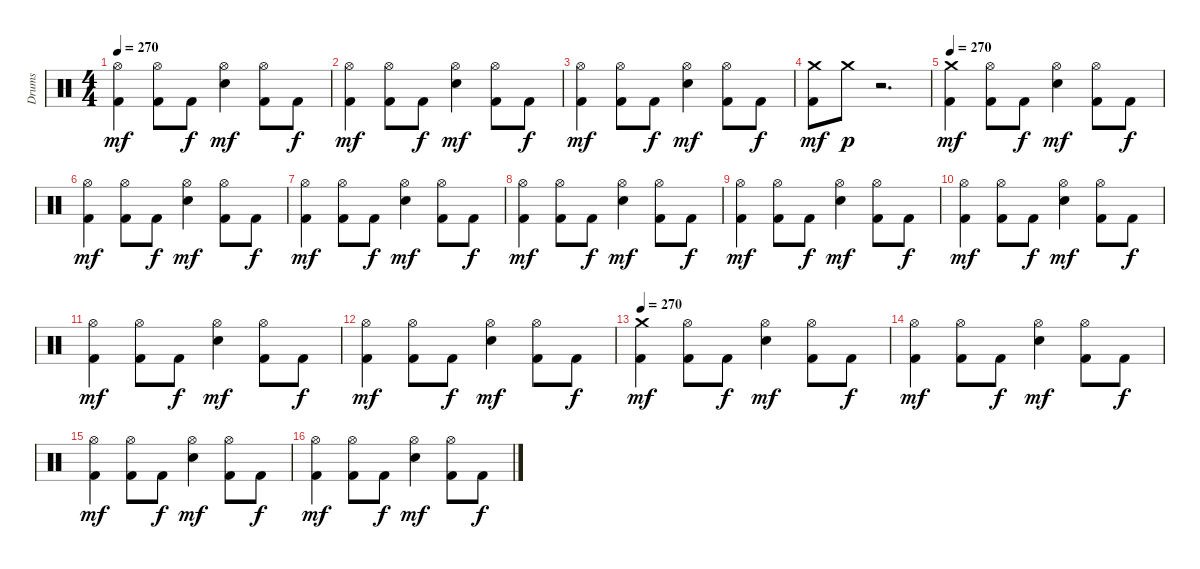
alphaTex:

\track ("Drums" "Drums") {instrument percussion}
\staff {score}
\articulation defaults
\ts (4 4)
\tempo 270
\clef neutral
\ks c
("Hi-Hat (open)" "Kick (hit) 2").4{dy mf} ("Hi-Hat (open)" "Kick (hit) 2").8 "Kick (hit) 2".8{dy f} ("Hi-Hat (open)" "Snare (hit) 2").4{dy mf} ("Hi-Hat (open)" "Kick (hit) 2").8 "Kick (hit) 2".8{dy f} |
("Hi-Hat (open)" "Kick (hit) 2").4{dy mf} ("Hi-Hat (open)" "Kick (hit) 2").8 "Kick (hit) 2".8{dy f} ("Hi-Hat (open)" "Snare (hit) 2").4{dy mf} ("Hi-Hat (open)" "Kick (hit) 2").8 "Kick (hit) 2".8{dy f} |
("Hi-Hat (open)" "Kick (hit) 2").4{dy mf} ("Hi-Hat (open)" "Kick (hit) 2").8 "Kick (hit) 2".8{dy f} ("Hi-Hat (open)" "Snare (hit) 2").4{dy mf} ("Hi-Hat (open)" "Kick (hit) 2").8 "Kick (hit) 2".8{dy f} |
("Crash medium (hit)" "Kick (hit) 2").8{dy mf} "Crash medium (hit)".8{dy p} r.2{d} |
\tempo 270
("Crash medium (hit)" "Kick (hit) 2").4{dy mf} ("Hi-Hat (open)" "Kick (hit) 2").8 "Kick (hit) 2".8{dy f} ("Hi-Hat (open)" "Snare (hit) 2").4{dy mf} ("Hi-Hat (open)" "Kick (hit) 2").8 "Kick (hit) 2".8{dy f} |
("Hi-Hat (open)" "Kick (hit) 2").4{dy mf} ("Hi-Hat (open)" "Kick (hit) 2").8 "Kick (hit) 2".8{dy f} ("Hi-Hat (open)" "Snare (hit) 2").4{dy mf} ("Hi-Hat (open)" "Kick (hit) 2").8 "Kick (hit) 2".8{dy f} |
("Hi-Hat (open)" "Kick (hit) 2").4{dy mf} ("Hi-Hat (open)" "Kick (hit) 2").8 "Kick (hit) 2".8{dy f} ("Hi-Hat (open)" "Snare (hit) 2").4{dy mf} ("Hi-Hat (open)" "Kick (hit) 2").8 "Kick (hit) 2".8{dy f} |
("Hi-Hat (open)" "Kick (hit) 2").4{dy mf} ("Hi-Hat (open)" "Kick (hit) 2").8 "Kick (hit) 2".8{dy f} ("Hi-Hat (open)" "Snare (hit) 2").4{dy mf} ("Hi-Hat (open)" "Kick (hit) 2").8 "Kick (hit) 2".8{dy f} |
("Hi-Hat (open)" "Kick (hit) 2").4{dy mf} ("Hi-Hat (open)" "Kick (hit) 2").8 "Kick (hit) 2".8{dy f} ("Hi-Hat (open)" "Snare (hit) 2").4{dy mf} ("Hi-Hat (open)" "Kick (hit) 2").8 "Kick (hit) 2".8{dy f} |
("Hi-Hat (open)" "Kick (hit) 2").4{dy mf} ("Hi-Hat (open)" "Kick (hit) 2").8 "Kick (hit) 2".8{dy f} ("Hi-Hat (open)" "Snare (hit) 2").4{dy mf} ("Hi-Hat (open)" "Kick (hit) 2").8 "Kick (hit) 2".8{dy f} |
("Hi-Hat (open)" "Kick (hit) 2").4{dy mf} ("Hi-Hat (open)" "Kick (hit) 2").8 "Kick (hit) 2".8{dy f} ("Hi-Hat (open)" "Snare (hit) 2").4{dy mf} ("Hi-Hat (open)" "Kick (hit) 2").8 "Kick (hit) 2".8{dy f} |
("Hi-Hat (open)" "Kick (hit) 2").4{dy mf} ("Hi-Hat (open)" "Kick (hit) 2").8 "Kick (hit) 2".8{dy f} ("Hi-Hat (open)" "Snare (hit) 2").4{dy mf} ("Hi-Hat (open)" "Kick (hit) 2").8 "Kick (hit) 2".8{dy f} |
\tempo 270
("Crash medium (hit)" "Kick (hit) 2").4{dy mf} ("Hi-Hat (open)" "Kick (hit) 2").8 "Kick (hit) 2".8{dy f} ("Hi-Hat (open)" "Snare (hit) 2").4{dy mf} ("Hi-Hat (open)" "Kick (hit) 2").8 "Kick (hit) 2".8{dy f} |
("Hi-Hat (open)" "Kick (hit) 2").4{dy mf} ("Hi-Hat (open)" "Kick (hit) 2").8 "Kick (hit) 2".8{dy f} ("Hi-Hat (open)" "Snare (hit) 2").4{dy mf} ("Hi-Hat (open)" "Kick (hit) 2").8 "Kick (hit) 2".8{dy f} |
("Hi-Hat (open)" "Kick (hit) 2").4{dy mf} ("Hi-Hat (open)" "Kick (hit) 2").8 "Kick (hit) 2".8{dy f} ("Hi-Hat (open)" "Snare (hit) 2").4{dy mf} ("Hi-Hat (open)" "Kick (hit) 2").8 "Kick (hit) 2".8{dy f} |
("Hi-Hat (open)" "Kick (hit) 2").4{dy mf} ("Hi-Hat (open)" "Kick (hit) 2").8 "Kick (hit) 2".8{dy f} ("Hi-Hat (open)" "Snare (hit) 2").4{dy mf} ("Hi-Hat (open)" "Kick (hit) 2").8 "Kick (hit) 2".8{dy f}
